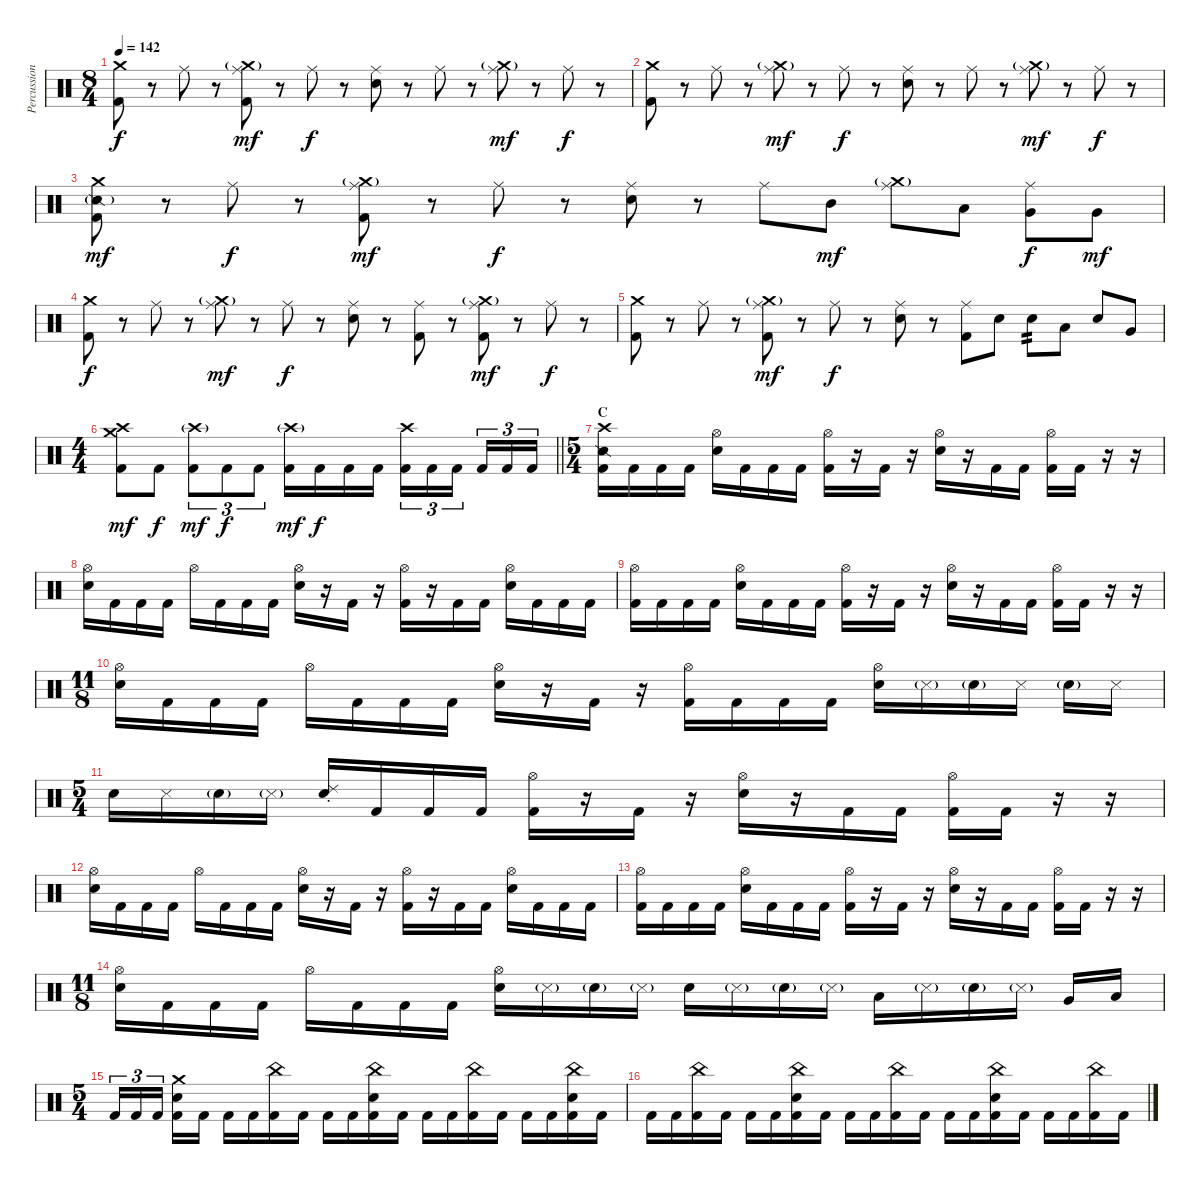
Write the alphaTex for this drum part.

\track ("Percussion" "Percussion") {instrument percussion}
\staff {score}
\articulation defaults
\ts (8 4)
\tempo 142
\clef neutral
\ks c
("Crash medium (hit)" "Kick (hit) 2").8{dy f} r.8 "Ride (middle)".8 r.8 ("Ride (middle)" "Crash medium (hit)"{g} "Kick (hit) 2").8{dy mf} r.8 "Ride (middle)".8{dy f} r.8 ("Ride (middle)" "Snare (hit) 2").8 r.8 "Ride (middle)".8 r.8 ("Ride (middle)" "Crash medium (hit)"{g}).8{dy mf} r.8 "Ride (middle)".8{dy f} r.8 |
("Crash medium (hit)" "Kick (hit) 2").8 r.8 "Ride (middle)".8 r.8 ("Ride (middle)" "Crash medium (hit)"{g}).8{dy mf} r.8 "Ride (middle)".8{dy f} r.8 ("Ride (middle)" "Snare (hit) 2").8 r.8 "Ride (middle)".8 r.8 ("Ride (middle)" "Crash medium (hit)"{g}).8{dy mf} r.8 "Ride (middle)".8{dy f} r.8 |
("Crash medium (hit)" "Snare (side stick) 2"{g} "Kick (hit) 2").8{dy mf} r.8 "Ride (middle)".8{dy f} r.8 ("Ride (middle)" "Crash medium (hit)"{g} "Kick (hit) 2").8{dy mf} r.8 "Ride (middle)".8{dy f} r.8 ("Ride (middle)" "Snare (hit) 2").8 r.8 "Ride (middle)".8 "Mid Tom (hit)".8{dy mf} ("Ride (middle)" "Crash medium (hit)"{g}).8 "Low Tom (hit)".8 ("Ride (middle)" "Very Low Tom (hit)").8{dy f} "Very Low Tom (hit)".8{dy mf} |
("Crash medium (hit)" "Kick (hit) 2").8{dy f} r.8 "Ride (middle)".8 r.8 ("Ride (middle)" "Crash medium (hit)"{g}).8{dy mf} r.8 "Ride (middle)".8{dy f} r.8 ("Ride (middle)" "Snare (hit) 2").8 r.8 ("Ride (middle)" "Kick (hit) 2").8 r.8 ("Ride (middle)" "Crash medium (hit)"{g} "Kick (hit) 2").8{dy mf} r.8 "Ride (middle)".8{dy f} r.8 |
("Crash medium (hit)" "Kick (hit) 2").8 r.8 "Ride (middle)".8 r.8 ("Ride (middle)" "Crash medium (hit)"{g} "Kick (hit) 2").8{dy mf} r.8 "Ride (middle)".8{dy f} r.8 ("Ride (middle)" "Snare (hit) 2").8 r.8 ("Ride (middle)" "Kick (hit) 2").8 "Snare (hit) 2".8 "Snare (hit) 2".8{tp 2} "Low Tom (hit)".8 "Snare (hit) 2".8 "Very Low Tom (hit)".8 |
\ts (4 4)
\barLineRight lightlight
("Crash high (hit)" "Crash medium (hit)" "Kick (hit) 2").8{dy mf} "Kick (hit) 2".8{dy f} ("Crash high (hit)"{g} "Kick (hit) 2").8{tu (3 2) dy mf} "Kick (hit) 2".8{tu (3 2) dy f} "Kick (hit) 2".8{tu (3 2)} ("Crash high (hit)"{g} "Kick (hit) 2").16{dy mf} "Kick (hit) 2".16{dy f} "Kick (hit) 2".16 "Kick (hit) 2".16 ("Crash high (hit)" "Kick (hit) 2").16{tu (3 2)} "Kick (hit) 2".16{tu (3 2)} "Kick (hit) 2".16{tu (3 2) beam splitsecondary} "Kick (hit) 2".16{tu (3 2)} "Kick (hit) 2".16{tu (3 2)} "Kick (hit) 2".16{tu (3 2)} |
\ts (5 4)
\section ("" "C")
("Crash high (hit)" "Snare (side stick) 2" "Kick (hit) 2").16 "Kick (hit) 2".16 "Kick (hit) 2".16 "Kick (hit) 2".16 ("Hi-Hat (open)" "Snare (hit) 2").16 "Kick (hit) 2".16 "Kick (hit) 2".16 "Kick (hit) 2".16 ("Hi-Hat (open)" "Kick (hit) 2").16 r.16 "Kick (hit) 2".16 r.16 ("Hi-Hat (open)" "Snare (hit) 2").16 r.16 "Kick (hit) 2".16 "Kick (hit) 2".16 ("Hi-Hat (open)" "Kick (hit) 2").16 "Kick (hit) 2".16 r.16 r.16 |
("Hi-Hat (open)" "Snare (hit) 2").16 "Kick (hit) 2".16 "Kick (hit) 2".16 "Kick (hit) 2".16 "Hi-Hat (open)".16 "Kick (hit) 2".16 "Kick (hit) 2".16 "Kick (hit) 2".16 ("Hi-Hat (open)" "Snare (hit) 2").16 r.16 "Kick (hit) 2".16 r.16 ("Hi-Hat (open)" "Kick (hit) 2").16 r.16 "Kick (hit) 2".16 "Kick (hit) 2".16 ("Hi-Hat (open)" "Snare (hit) 2").16 "Kick (hit) 2".16 "Kick (hit) 2".16 "Kick (hit) 2".16 |
("Hi-Hat (open)" "Kick (hit) 2").16 "Kick (hit) 2".16 "Kick (hit) 2".16 "Kick (hit) 2".16 ("Hi-Hat (open)" "Snare (hit) 2").16 "Kick (hit) 2".16 "Kick (hit) 2".16 "Kick (hit) 2".16 ("Hi-Hat (open)" "Kick (hit) 2").16 r.16 "Kick (hit) 2".16 r.16 ("Hi-Hat (open)" "Snare (hit) 2").16 r.16 "Kick (hit) 2".16 "Kick (hit) 2".16 ("Hi-Hat (open)" "Kick (hit) 2").16 "Kick (hit) 2".16 r.16 r.16 |
\ts (11 8)
("Hi-Hat (open)" "Snare (hit) 2").16 "Kick (hit) 2".16 "Kick (hit) 2".16 "Kick (hit) 2".16 "Hi-Hat (open)".16 "Kick (hit) 2".16 "Kick (hit) 2".16 "Kick (hit) 2".16 ("Hi-Hat (open)" "Snare (hit) 2").16 r.16 "Kick (hit) 2".16 r.16 ("Hi-Hat (open)" "Kick (hit) 2").16 "Kick (hit) 2".16 "Kick (hit) 2".16 "Kick (hit) 2".16 ("Hi-Hat (open)" "Snare (hit) 2").16 "Metronome (hit)"{g}.16 "Snare (hit) 2"{g}.16 "Metronome (hit)".16 "Snare (hit) 2"{g}.16 "Metronome (hit)".16 |
\ts (5 4)
"Snare (hit) 2".16 "Metronome (hit)".16 "Snare (hit) 2"{g}.16 "Metronome (hit)"{g}.16 ("Ride (choke) 2" "Snare (hit) 2").16 "Kick (hit) 2".16 "Kick (hit) 2".16 "Kick (hit) 2".16 ("Hi-Hat (open)" "Kick (hit) 2").16 r.16 "Kick (hit) 2".16 r.16 ("Hi-Hat (open)" "Snare (hit) 2").16 r.16 "Kick (hit) 2".16 "Kick (hit) 2".16 ("Hi-Hat (open)" "Kick (hit) 2").16 "Kick (hit) 2".16 r.16 r.16 |
("Hi-Hat (open)" "Snare (hit) 2").16 "Kick (hit) 2".16 "Kick (hit) 2".16 "Kick (hit) 2".16 "Hi-Hat (open)".16 "Kick (hit) 2".16 "Kick (hit) 2".16 "Kick (hit) 2".16 ("Hi-Hat (open)" "Snare (hit) 2").16 r.16 "Kick (hit) 2".16 r.16 ("Hi-Hat (open)" "Kick (hit) 2").16 r.16 "Kick (hit) 2".16 "Kick (hit) 2".16 ("Hi-Hat (open)" "Snare (hit) 2").16 "Kick (hit) 2".16 "Kick (hit) 2".16 "Kick (hit) 2".16 |
("Hi-Hat (open)" "Kick (hit) 2").16 "Kick (hit) 2".16 "Kick (hit) 2".16 "Kick (hit) 2".16 ("Hi-Hat (open)" "Snare (hit) 2").16 "Kick (hit) 2".16 "Kick (hit) 2".16 "Kick (hit) 2".16 ("Hi-Hat (open)" "Kick (hit) 2").16 r.16 "Kick (hit) 2".16 r.16 ("Hi-Hat (open)" "Snare (hit) 2").16 r.16 "Kick (hit) 2".16 "Kick (hit) 2".16 ("Hi-Hat (open)" "Kick (hit) 2").16 "Kick (hit) 2".16 r.16 r.16 |
\ts (11 8)
("Hi-Hat (open)" "Snare (hit) 2").16 "Kick (hit) 2".16 "Kick (hit) 2".16 "Kick (hit) 2".16 "Hi-Hat (open)".16 "Kick (hit) 2".16 "Kick (hit) 2".16 "Kick (hit) 2".16 ("Hi-Hat (open)" "Snare (hit) 2").16 "Metronome (hit)"{g}.16 "Snare (hit) 2"{g}.16 "Metronome (hit)"{g}.16 "Snare (hit) 2".16 "Metronome (hit)"{g}.16 "Snare (hit) 2"{g}.16 "Metronome (hit)"{g}.16 "Low Tom (hit)".16 "Metronome (hit)"{g}.16 "Snare (hit) 2"{g}.16 "Metronome (hit)"{g}.16 "Very Low Tom (hit)".16 "Low Floor Tom (hit)".16 |
\ts (5 4)
"Kick (hit) 2".16{tu (3 2)} "Kick (hit) 2".16{tu (3 2)} "Kick (hit) 2".16{tu (3 2) beam splitsecondary} ("Crash medium (hit)" "Snare (hit) 2" "Kick (hit) 2").16 "Kick (hit) 2".16 "Kick (hit) 2".16 "Kick (hit) 2".16 ("China (hit)" "Kick (hit) 2").16 "Kick (hit) 2".16 "Kick (hit) 2".16 "Kick (hit) 2".16 ("China (hit)" "Snare (hit) 2" "Kick (hit) 2").16 "Kick (hit) 2".16 "Kick (hit) 2".16 "Kick (hit) 2".16 ("China (hit)" "Kick (hit) 2").16 "Kick (hit) 2".16 "Kick (hit) 2".16 "Kick (hit) 2".16 ("China (hit)" "Snare (hit) 2" "Kick (hit) 2").16 "Kick (hit) 2".16 |
"Kick (hit) 2".16 "Kick (hit) 2".16 ("China (hit)" "Kick (hit) 2").16 "Kick (hit) 2".16 "Kick (hit) 2".16 "Kick (hit) 2".16 ("China (hit)" "Snare (hit) 2" "Kick (hit) 2").16 "Kick (hit) 2".16 "Kick (hit) 2".16 "Kick (hit) 2".16 ("China (hit)" "Kick (hit) 2").16 "Kick (hit) 2".16 "Kick (hit) 2".16 "Kick (hit) 2".16 ("China (hit)" "Snare (hit) 2" "Kick (hit) 2").16 "Kick (hit) 2".16 "Kick (hit) 2".16 "Kick (hit) 2".16 ("China (hit)" "Kick (hit) 2").16 "Kick (hit) 2".16
